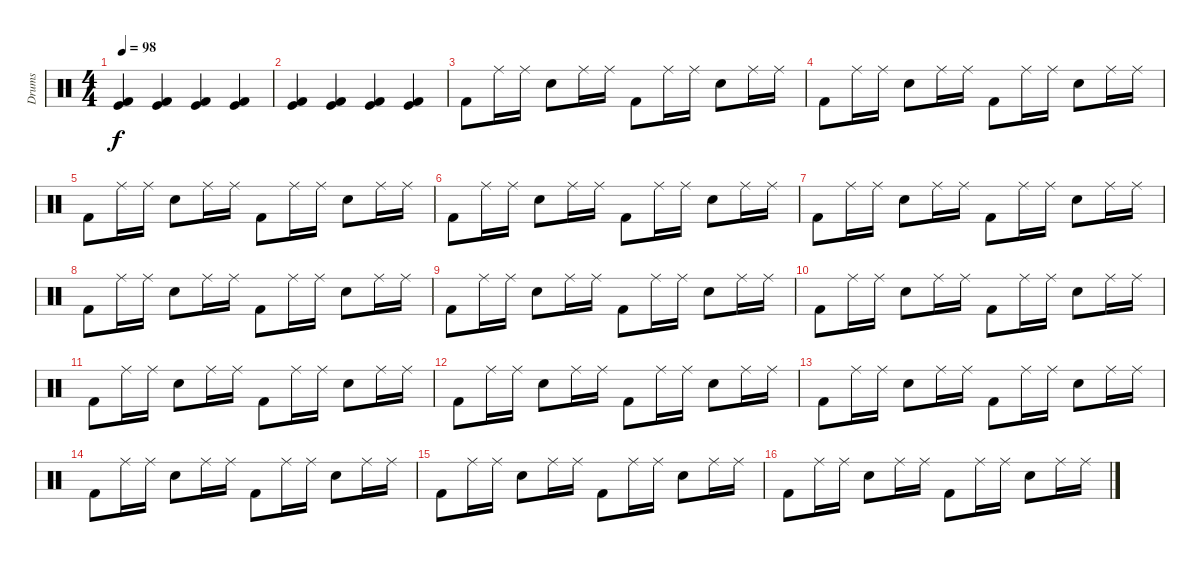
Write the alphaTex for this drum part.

\track ("Drums" "Drums") {instrument percussion}
\staff {score}
\articulation defaults
\ts (4 4)
\tempo 98
\clef neutral
\ks c
("Kick (hit)" "Kick (hit) 2").4{dy f} ("Kick (hit)" "Kick (hit) 2").4 ("Kick (hit)" "Kick (hit) 2").4 ("Kick (hit)" "Kick (hit) 2").4 |
("Kick (hit)" "Kick (hit) 2").4 ("Kick (hit)" "Kick (hit) 2").4 ("Kick (hit)" "Kick (hit) 2").4 ("Kick (hit)" "Kick (hit) 2").4 |
"Kick (hit) 2".8 "Ride (middle)".16 "Ride (middle)".16 "Snare (hit) 2".8 "Ride (middle)".16 "Ride (middle)".16 "Kick (hit) 2".8 "Ride (middle)".16 "Ride (middle)".16 "Snare (hit) 2".8 "Ride (middle)".16 "Ride (middle)".16 |
"Kick (hit) 2".8 "Ride (middle)".16 "Ride (middle)".16 "Snare (hit) 2".8 "Ride (middle)".16 "Ride (middle)".16 "Kick (hit) 2".8 "Ride (middle)".16 "Ride (middle)".16 "Snare (hit) 2".8 "Ride (middle)".16 "Ride (middle)".16 |
"Kick (hit) 2".8 "Ride (middle)".16 "Ride (middle)".16 "Snare (hit) 2".8 "Ride (middle)".16 "Ride (middle)".16 "Kick (hit) 2".8 "Ride (middle)".16 "Ride (middle)".16 "Snare (hit) 2".8 "Ride (middle)".16 "Ride (middle)".16 |
"Kick (hit) 2".8 "Ride (middle)".16 "Ride (middle)".16 "Snare (hit) 2".8 "Ride (middle)".16 "Ride (middle)".16 "Kick (hit) 2".8 "Ride (middle)".16 "Ride (middle)".16 "Snare (hit) 2".8 "Ride (middle)".16 "Ride (middle)".16 |
"Kick (hit) 2".8 "Ride (middle)".16 "Ride (middle)".16 "Snare (hit) 2".8 "Ride (middle)".16 "Ride (middle)".16 "Kick (hit) 2".8 "Ride (middle)".16 "Ride (middle)".16 "Snare (hit) 2".8 "Ride (middle)".16 "Ride (middle)".16 |
"Kick (hit) 2".8 "Ride (middle)".16 "Ride (middle)".16 "Snare (hit) 2".8 "Ride (middle)".16 "Ride (middle)".16 "Kick (hit) 2".8 "Ride (middle)".16 "Ride (middle)".16 "Snare (hit) 2".8 "Ride (middle)".16 "Ride (middle)".16 |
"Kick (hit) 2".8 "Ride (middle)".16 "Ride (middle)".16 "Snare (hit) 2".8 "Ride (middle)".16 "Ride (middle)".16 "Kick (hit) 2".8 "Ride (middle)".16 "Ride (middle)".16 "Snare (hit) 2".8 "Ride (middle)".16 "Ride (middle)".16 |
"Kick (hit) 2".8 "Ride (middle)".16 "Ride (middle)".16 "Snare (hit) 2".8 "Ride (middle)".16 "Ride (middle)".16 "Kick (hit) 2".8 "Ride (middle)".16 "Ride (middle)".16 "Snare (hit) 2".8 "Ride (middle)".16 "Ride (middle)".16 |
"Kick (hit) 2".8 "Ride (middle)".16 "Ride (middle)".16 "Snare (hit) 2".8 "Ride (middle)".16 "Ride (middle)".16 "Kick (hit) 2".8 "Ride (middle)".16 "Ride (middle)".16 "Snare (hit) 2".8 "Ride (middle)".16 "Ride (middle)".16 |
"Kick (hit) 2".8 "Ride (middle)".16 "Ride (middle)".16 "Snare (hit) 2".8 "Ride (middle)".16 "Ride (middle)".16 "Kick (hit) 2".8 "Ride (middle)".16 "Ride (middle)".16 "Snare (hit) 2".8 "Ride (middle)".16 "Ride (middle)".16 |
"Kick (hit) 2".8 "Ride (middle)".16 "Ride (middle)".16 "Snare (hit) 2".8 "Ride (middle)".16 "Ride (middle)".16 "Kick (hit) 2".8 "Ride (middle)".16 "Ride (middle)".16 "Snare (hit) 2".8 "Ride (middle)".16 "Ride (middle)".16 |
"Kick (hit) 2".8 "Ride (middle)".16 "Ride (middle)".16 "Snare (hit) 2".8 "Ride (middle)".16 "Ride (middle)".16 "Kick (hit) 2".8 "Ride (middle)".16 "Ride (middle)".16 "Snare (hit) 2".8 "Ride (middle)".16 "Ride (middle)".16 |
"Kick (hit) 2".8 "Ride (middle)".16 "Ride (middle)".16 "Snare (hit) 2".8 "Ride (middle)".16 "Ride (middle)".16 "Kick (hit) 2".8 "Ride (middle)".16 "Ride (middle)".16 "Snare (hit) 2".8 "Ride (middle)".16 "Ride (middle)".16 |
"Kick (hit) 2".8 "Ride (middle)".16 "Ride (middle)".16 "Snare (hit) 2".8 "Ride (middle)".16 "Ride (middle)".16 "Kick (hit) 2".8 "Ride (middle)".16 "Ride (middle)".16 "Snare (hit) 2".8 "Ride (middle)".16 "Ride (middle)".16
